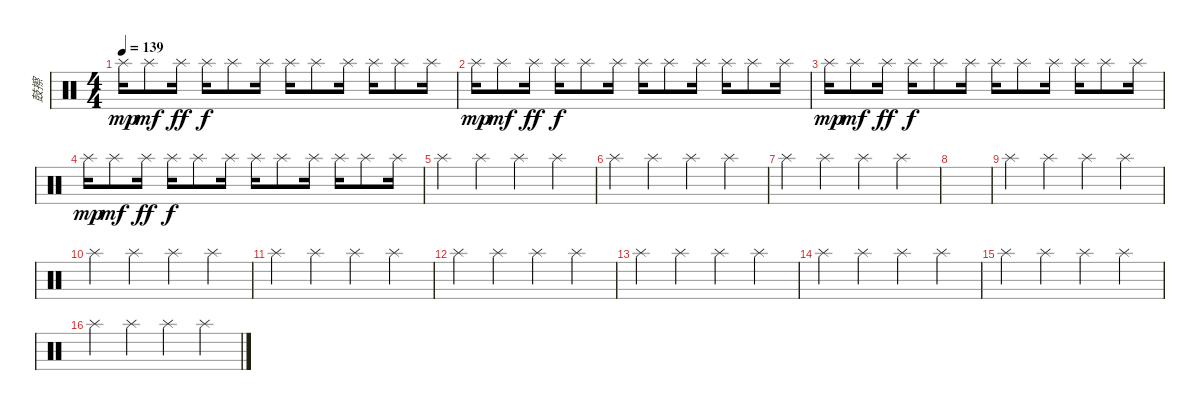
\track ("鼓擦" "鼓擦") {instrument percussion}
\staff {score}
\articulation defaults
\ts (4 4)
\tempo 139
\clef neutral
\ks c "Splash (hit)".16{dy mp} "Splash (hit)".8{dy mf} "Splash (hit)".16{dy ff} "Splash (hit)".16{dy f} "Splash (hit)".8 "Splash (hit)".16 "Splash (hit)".16 "Splash (hit)".8 "Splash (hit)".16 "Splash (hit)".16 "Splash (hit)".8 "Splash (hit)".16
|
"Splash (hit)".16{dy mp} "Splash (hit)".8{dy mf} "Splash (hit)".16{dy ff} "Splash (hit)".16{dy f} "Splash (hit)".8 "Splash (hit)".16 "Splash (hit)".16 "Splash (hit)".8 "Splash (hit)".16 "Splash (hit)".16 "Splash (hit)".8 "Splash (hit)".16 |
"Splash (hit)".16{dy mp} "Splash (hit)".8{dy mf} "Splash (hit)".16{dy ff} "Splash (hit)".16{dy f} "Splash (hit)".8 "Splash (hit)".16 "Splash (hit)".16 "Splash (hit)".8 "Splash (hit)".16 "Splash (hit)".16 "Splash (hit)".8 "Splash (hit)".16 |
"Splash (hit)".16{dy mp} "Splash (hit)".8{dy mf} "Splash (hit)".16{dy ff} "Splash (hit)".16{dy f} "Splash (hit)".8 "Splash (hit)".16 "Splash (hit)".16 "Splash (hit)".8 "Splash (hit)".16 "Splash (hit)".16 "Splash (hit)".8 "Splash (hit)".16 |
"Splash (hit)".4 "Splash (hit)".4 "Splash (hit)".4 "Splash (hit)".4 |
"Splash (hit)".4 "Splash (hit)".4 "Splash (hit)".4 "Splash (hit)".4 |
"Splash (hit)".4 "Splash (hit)".4 "Splash (hit)".4 "Splash (hit)".4 |
|
"Splash (hit)".4 "Splash (hit)".4 "Splash (hit)".4 "Splash (hit)".4 |
"Splash (hit)".4 "Splash (hit)".4 "Splash (hit)".4 "Splash (hit)".4 |
"Splash (hit)".4 "Splash (hit)".4 "Splash (hit)".4 "Splash (hit)".4 |
"Splash (hit)".4 "Splash (hit)".4 "Splash (hit)".4 "Splash (hit)".4 |
"Splash (hit)".4 "Splash (hit)".4 "Splash (hit)".4 "Splash (hit)".4 |
"Splash (hit)".4 "Splash (hit)".4 "Splash (hit)".4 "Splash (hit)".4 |
"Splash (hit)".4 "Splash (hit)".4 "Splash (hit)".4 "Splash (hit)".4 |
"Splash (hit)".4 "Splash (hit)".4 "Splash (hit)".4 "Splash (hit)".4
